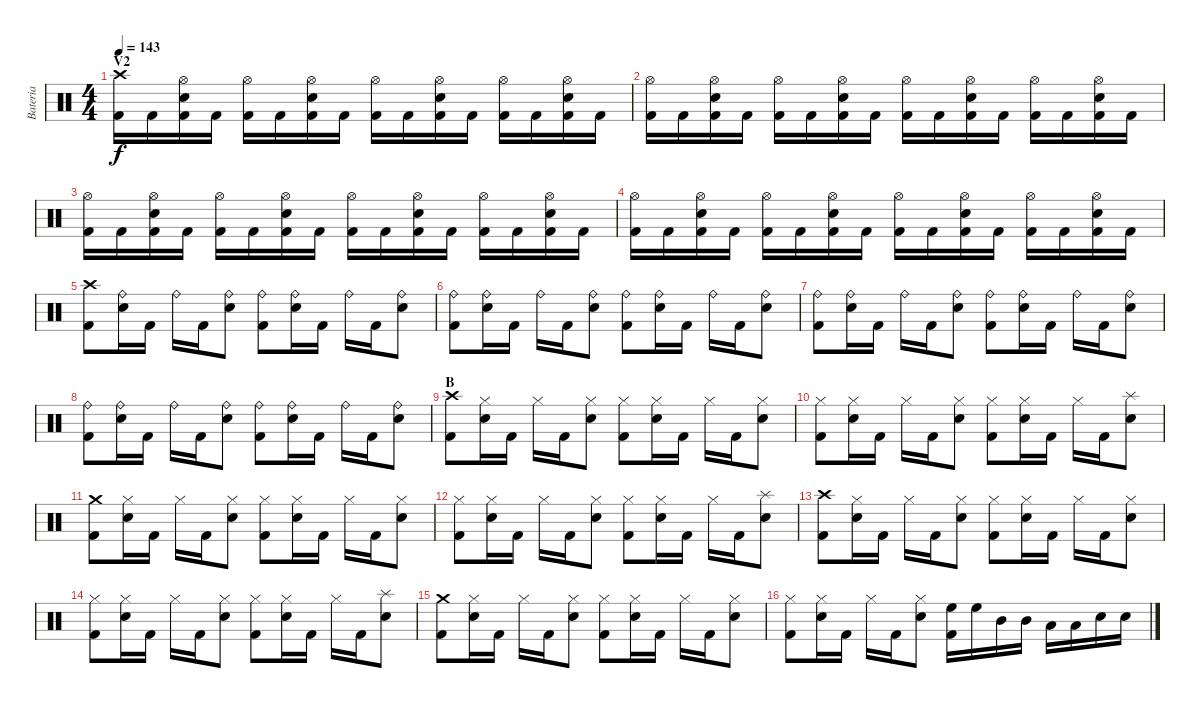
\track ("Bateria" "Bateria") {instrument percussion}
\staff {score}
\articulation defaults
\ts (4 4)
\section ("" "V2")
\tempo 143
\clef neutral
\ks c
("Crash high (hit)" "Kick (hit) 2").16{dy f} "Kick (hit) 2".16 ("Hi-Hat (open)" "Snare (hit) 2" "Kick (hit) 2").16 "Kick (hit) 2".16 ("Hi-Hat (open)" "Kick (hit) 2").16 "Kick (hit) 2".16 ("Hi-Hat (open)" "Snare (hit) 2" "Kick (hit) 2").16 "Kick (hit) 2".16 ("Hi-Hat (open)" "Kick (hit) 2").16 "Kick (hit) 2".16 ("Hi-Hat (open)" "Snare (hit) 2" "Kick (hit) 2").16 "Kick (hit) 2".16 ("Hi-Hat (open)" "Kick (hit) 2").16 "Kick (hit) 2".16 ("Hi-Hat (open)" "Snare (hit) 2" "Kick (hit) 2").16 "Kick (hit) 2".16 |
("Hi-Hat (open)" "Kick (hit) 2").16 "Kick (hit) 2".16 ("Hi-Hat (open)" "Snare (hit) 2" "Kick (hit) 2").16 "Kick (hit) 2".16 ("Hi-Hat (open)" "Kick (hit) 2").16 "Kick (hit) 2".16 ("Hi-Hat (open)" "Snare (hit) 2" "Kick (hit) 2").16 "Kick (hit) 2".16 ("Hi-Hat (open)" "Kick (hit) 2").16 "Kick (hit) 2".16 ("Hi-Hat (open)" "Snare (hit) 2" "Kick (hit) 2").16 "Kick (hit) 2".16 ("Hi-Hat (open)" "Kick (hit) 2").16 "Kick (hit) 2".16 ("Hi-Hat (open)" "Snare (hit) 2" "Kick (hit) 2").16 "Kick (hit) 2".16 |
("Hi-Hat (open)" "Kick (hit) 2").16 "Kick (hit) 2".16 ("Hi-Hat (open)" "Snare (hit) 2" "Kick (hit) 2").16 "Kick (hit) 2".16 ("Hi-Hat (open)" "Kick (hit) 2").16 "Kick (hit) 2".16 ("Hi-Hat (open)" "Snare (hit) 2" "Kick (hit) 2").16 "Kick (hit) 2".16 ("Hi-Hat (open)" "Kick (hit) 2").16 "Kick (hit) 2".16 ("Hi-Hat (open)" "Snare (hit) 2" "Kick (hit) 2").16 "Kick (hit) 2".16 ("Hi-Hat (open)" "Kick (hit) 2").16 "Kick (hit) 2".16 ("Hi-Hat (open)" "Snare (hit) 2" "Kick (hit) 2").16 "Kick (hit) 2".16 |
("Hi-Hat (open)" "Kick (hit) 2").16 "Kick (hit) 2".16 ("Hi-Hat (open)" "Snare (hit) 2" "Kick (hit) 2").16 "Kick (hit) 2".16 ("Hi-Hat (open)" "Kick (hit) 2").16 "Kick (hit) 2".16 ("Hi-Hat (open)" "Snare (hit) 2" "Kick (hit) 2").16 "Kick (hit) 2".16 ("Hi-Hat (open)" "Kick (hit) 2").16 "Kick (hit) 2".16 ("Hi-Hat (open)" "Snare (hit) 2" "Kick (hit) 2").16 "Kick (hit) 2".16 ("Hi-Hat (open)" "Kick (hit) 2").16 "Kick (hit) 2".16 ("Hi-Hat (open)" "Snare (hit) 2" "Kick (hit) 2").16 "Kick (hit) 2".16 |
("Crash high (hit)" "Kick (hit) 2").8 ("Ride (bell)" "Snare (hit) 2").16 "Kick (hit) 2".16 "Ride (bell)".16 "Kick (hit) 2".16 ("Ride (bell)" "Snare (hit) 2").8 ("Ride (bell)" "Kick (hit) 2").8 ("Ride (bell)" "Snare (hit) 2").16 "Kick (hit) 2".16 "Ride (bell)".16 "Kick (hit) 2".16 ("Ride (bell)" "Snare (hit) 2").8 |
("Ride (bell)" "Kick (hit) 2").8 ("Ride (bell)" "Snare (hit) 2").16 "Kick (hit) 2".16 "Ride (bell)".16 "Kick (hit) 2".16 ("Ride (bell)" "Snare (hit) 2").8 ("Ride (bell)" "Kick (hit) 2").8 ("Ride (bell)" "Snare (hit) 2").16 "Kick (hit) 2".16 "Ride (bell)".16 "Kick (hit) 2".16 ("Ride (bell)" "Snare (hit) 2").8 |
("Ride (bell)" "Kick (hit) 2").8 ("Ride (bell)" "Snare (hit) 2").16 "Kick (hit) 2".16 "Ride (bell)".16 "Kick (hit) 2".16 ("Ride (bell)" "Snare (hit) 2").8 ("Ride (bell)" "Kick (hit) 2").8 ("Ride (bell)" "Snare (hit) 2").16 "Kick (hit) 2".16 "Ride (bell)".16 "Kick (hit) 2".16 ("Ride (bell)" "Snare (hit) 2").8 |
("Ride (bell)" "Kick (hit) 2").8 ("Ride (bell)" "Snare (hit) 2").16 "Kick (hit) 2".16 "Ride (bell)".16 "Kick (hit) 2".16 ("Ride (bell)" "Snare (hit) 2").8 ("Ride (bell)" "Kick (hit) 2").8 ("Ride (bell)" "Snare (hit) 2").16 "Kick (hit) 2".16 "Ride (bell)".16 "Kick (hit) 2".16 ("Ride (bell)" "Snare (hit) 2").8 |
\section ("" "B")
("Crash high (hit)" "Kick (hit) 2").8 ("Hi-Hat (closed)" "Snare (hit) 2").16 "Kick (hit) 2".16 "Hi-Hat (closed)".16 "Kick (hit) 2".16 ("Hi-Hat (closed)" "Snare (hit) 2").8 ("Hi-Hat (closed)" "Kick (hit) 2").8 ("Hi-Hat (closed)" "Snare (hit) 2").16 "Kick (hit) 2".16 "Hi-Hat (closed)".16 "Kick (hit) 2".16 ("Hi-Hat (closed)" "Snare (hit) 2").8 |
("Hi-Hat (closed)" "Kick (hit) 2").8 ("Hi-Hat (closed)" "Snare (hit) 2").16 "Kick (hit) 2".16 "Hi-Hat (closed)".16 "Kick (hit) 2".16 ("Hi-Hat (closed)" "Snare (hit) 2").8 ("Hi-Hat (closed)" "Kick (hit) 2").8 ("Hi-Hat (closed)" "Snare (hit) 2").16 "Kick (hit) 2".16 "Hi-Hat (closed)".16 "Kick (hit) 2".16 ("Splash (hit)" "Snare (hit) 2").8 |
("Crash medium (hit)" "Kick (hit) 2").8 ("Hi-Hat (closed)" "Snare (hit) 2").16 "Kick (hit) 2".16 "Hi-Hat (closed)".16 "Kick (hit) 2".16 ("Hi-Hat (closed)" "Snare (hit) 2").8 ("Hi-Hat (closed)" "Kick (hit) 2").8 ("Hi-Hat (closed)" "Snare (hit) 2").16 "Kick (hit) 2".16 "Hi-Hat (closed)".16 "Kick (hit) 2".16 ("Hi-Hat (closed)" "Snare (hit) 2").8 |
("Hi-Hat (closed)" "Kick (hit) 2").8 ("Hi-Hat (closed)" "Snare (hit) 2").16 "Kick (hit) 2".16 "Hi-Hat (closed)".16 "Kick (hit) 2".16 ("Hi-Hat (closed)" "Snare (hit) 2").8 ("Hi-Hat (closed)" "Kick (hit) 2").8 ("Hi-Hat (closed)" "Snare (hit) 2").16 "Kick (hit) 2".16 "Hi-Hat (closed)".16 "Kick (hit) 2".16 ("Splash (hit)" "Snare (hit) 2").8 |
("Crash high (hit)" "Kick (hit) 2").8 ("Hi-Hat (closed)" "Snare (hit) 2").16 "Kick (hit) 2".16 "Hi-Hat (closed)".16 "Kick (hit) 2".16 ("Hi-Hat (closed)" "Snare (hit) 2").8 ("Hi-Hat (closed)" "Kick (hit) 2").8 ("Hi-Hat (closed)" "Snare (hit) 2").16 "Kick (hit) 2".16 "Hi-Hat (closed)".16 "Kick (hit) 2".16 ("Hi-Hat (closed)" "Snare (hit) 2").8 |
("Hi-Hat (closed)" "Kick (hit) 2").8 ("Hi-Hat (closed)" "Snare (hit) 2").16 "Kick (hit) 2".16 "Hi-Hat (closed)".16 "Kick (hit) 2".16 ("Hi-Hat (closed)" "Snare (hit) 2").8 ("Hi-Hat (closed)" "Kick (hit) 2").8 ("Hi-Hat (closed)" "Snare (hit) 2").16 "Kick (hit) 2".16 "Hi-Hat (closed)".16 "Kick (hit) 2".16 ("Splash (hit)" "Snare (hit) 2").8 |
("Crash medium (hit)" "Kick (hit) 2").8 ("Hi-Hat (closed)" "Snare (hit) 2").16 "Kick (hit) 2".16 "Hi-Hat (closed)".16 "Kick (hit) 2".16 ("Hi-Hat (closed)" "Snare (hit) 2").8 ("Hi-Hat (closed)" "Kick (hit) 2").8 ("Hi-Hat (closed)" "Snare (hit) 2").16 "Kick (hit) 2".16 "Hi-Hat (closed)".16 "Kick (hit) 2".16 ("Hi-Hat (closed)" "Snare (hit) 2").8 |
("Hi-Hat (closed)" "Kick (hit) 2").8 ("Hi-Hat (closed)" "Snare (hit) 2").16 "Kick (hit) 2".16 "Hi-Hat (closed)".16 "Kick (hit) 2".16 ("Hi-Hat (closed)" "Snare (hit) 2").8 ("High Floor Tom (hit)" "Kick (hit) 2").16 "High Floor Tom (hit)".16 "Mid Tom (hit)".16 "Mid Tom (hit)".16 "Low Tom (hit)".16 "Low Tom (hit)".16 "Snare (hit) 2".16 "Snare (hit) 2".16
